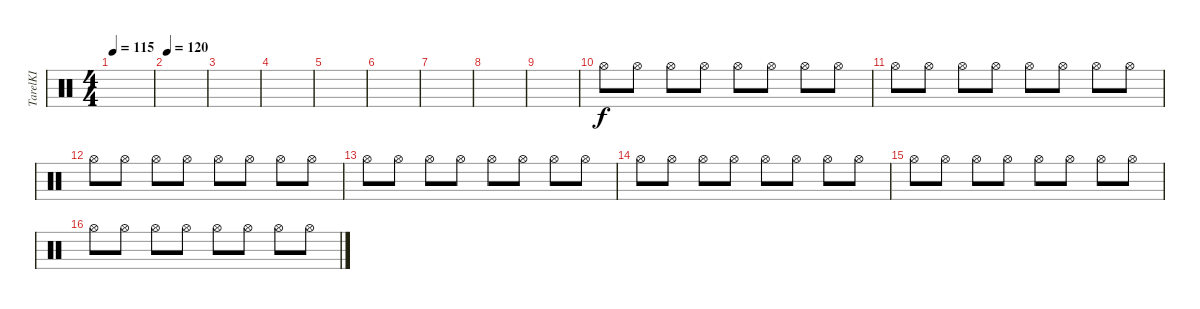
\track ("TarelKI" "TarelKI") {instrument percussion}
\staff {score}
\articulation defaults
\ts (4 4)
\tempo 115
\clef neutral
\ks c
|
\tempo 120
|
|
|
|
|
|
|
|
"Hi-Hat (open)".8 "Hi-Hat (open)".8 "Hi-Hat (open)".8 "Hi-Hat (open)".8 "Hi-Hat (open)".8 "Hi-Hat (open)".8 "Hi-Hat (open)".8 "Hi-Hat (open)".8 |
"Hi-Hat (open)".8 "Hi-Hat (open)".8 "Hi-Hat (open)".8 "Hi-Hat (open)".8 "Hi-Hat (open)".8 "Hi-Hat (open)".8 "Hi-Hat (open)".8 "Hi-Hat (open)".8 |
"Hi-Hat (open)".8 "Hi-Hat (open)".8 "Hi-Hat (open)".8 "Hi-Hat (open)".8 "Hi-Hat (open)".8 "Hi-Hat (open)".8 "Hi-Hat (open)".8 "Hi-Hat (open)".8 |
"Hi-Hat (open)".8 "Hi-Hat (open)".8 "Hi-Hat (open)".8 "Hi-Hat (open)".8 "Hi-Hat (open)".8 "Hi-Hat (open)".8 "Hi-Hat (open)".8 "Hi-Hat (open)".8 |
"Hi-Hat (open)".8 "Hi-Hat (open)".8 "Hi-Hat (open)".8 "Hi-Hat (open)".8 "Hi-Hat (open)".8 "Hi-Hat (open)".8 "Hi-Hat (open)".8 "Hi-Hat (open)".8 |
"Hi-Hat (open)".8 "Hi-Hat (open)".8 "Hi-Hat (open)".8 "Hi-Hat (open)".8 "Hi-Hat (open)".8 "Hi-Hat (open)".8 "Hi-Hat (open)".8 "Hi-Hat (open)".8 |
"Hi-Hat (open)".8 "Hi-Hat (open)".8 "Hi-Hat (open)".8 "Hi-Hat (open)".8 "Hi-Hat (open)".8 "Hi-Hat (open)".8 "Hi-Hat (open)".8 "Hi-Hat (open)".8
